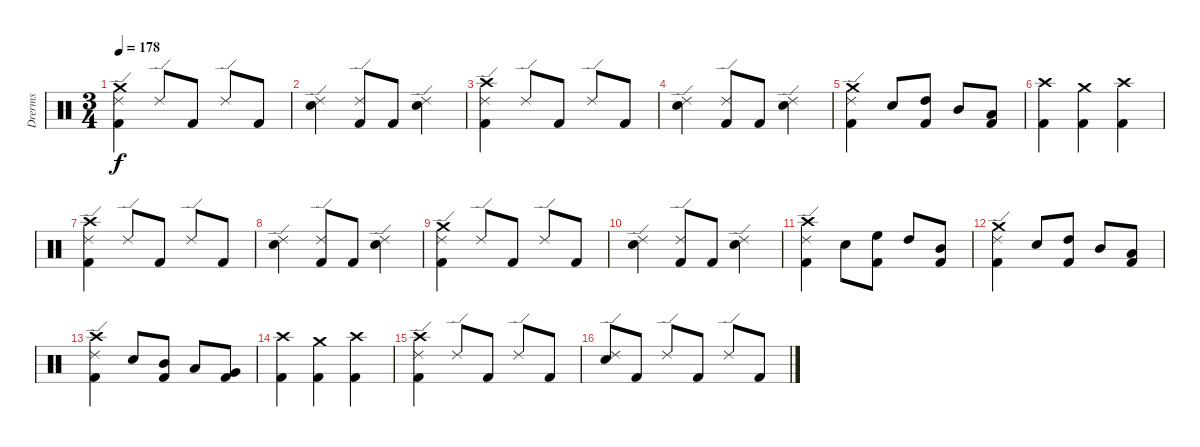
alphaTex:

\track ("Drerms" "Drerms") {instrument percussion}
\staff {score}
\articulation defaults
\ts (3 4)
\tempo 178
\clef neutral
\ks c
("Crash medium (hit)" "Ride (edge) 2" "Kick (hit) 2").4{dy f} "Ride (edge) 2".8 "Kick (hit) 2".8 "Ride (edge) 2".8 "Kick (hit) 2".8 |
("Snare (hit) 2" "Ride (edge) 2").4 ("Ride (edge) 2" "Kick (hit) 2").8 "Kick (hit) 2".8 ("Snare (hit) 2" "Ride (edge) 2").4 |
("Crash high (hit)" "Ride (edge) 2" "Kick (hit) 2").4 "Ride (edge) 2".8 "Kick (hit) 2".8 "Ride (edge) 2".8 "Kick (hit) 2".8 |
("Snare (hit) 2" "Ride (edge) 2").4 ("Ride (edge) 2" "Kick (hit) 2").8 "Kick (hit) 2".8 ("Snare (hit) 2" "Ride (edge) 2").4 |
("Crash medium (hit)" "Ride (edge) 2" "Kick (hit) 2").4 "Snare (hit) 2".8 ("High Tom (hit)" "Kick (hit) 2").8 "Mid Tom (hit)".8 ("Low Tom (hit)" "Kick (hit) 2").8 |
("Crash high (hit)" "Kick (hit) 2").4 ("Crash medium (hit)" "Kick (hit) 2").4 ("Crash high (hit)" "Kick (hit) 2").4 |
("Crash high (hit)" "Ride (edge) 2" "Kick (hit) 2").4 "Ride (edge) 2".8 "Kick (hit) 2".8 "Ride (edge) 2".8 "Kick (hit) 2".8 |
("Snare (hit) 2" "Ride (edge) 2").4 ("Ride (edge) 2" "Kick (hit) 2").8 "Kick (hit) 2".8 ("Snare (hit) 2" "Ride (edge) 2").4 |
("Crash medium (hit)" "Ride (edge) 2" "Kick (hit) 2").4 "Ride (edge) 2".8 "Kick (hit) 2".8 "Ride (edge) 2".8 "Kick (hit) 2".8 |
("Snare (hit) 2" "Ride (edge) 2").4 ("Ride (edge) 2" "Kick (hit) 2").8 "Kick (hit) 2".8 ("Snare (hit) 2" "Ride (edge) 2").4 |
("Crash high (hit)" "Ride (edge) 2" "Kick (hit) 2").4 "Snare (hit) 2".8 ("High Floor Tom (hit)" "Kick (hit) 2").8 "High Tom (hit)".8 ("Mid Tom (hit)" "Kick (hit) 2").8 |
("Crash medium (hit)" "Ride (edge) 2" "Kick (hit) 2").4 "Snare (hit) 2".8 ("High Tom (hit)" "Kick (hit) 2").8 "Mid Tom (hit)".8 ("Low Tom (hit)" "Kick (hit) 2").8 |
("Crash high (hit)" "Ride (edge) 2" "Kick (hit) 2").4 "Snare (hit) 2".8 ("Mid Tom (hit)" "Kick (hit) 2").8 "Low Tom (hit)".8 ("Very Low Tom (hit)" "Kick (hit) 2").8 |
("Crash high (hit)" "Kick (hit) 2").4 ("Crash medium (hit)" "Kick (hit) 2").4 ("Crash high (hit)" "Kick (hit) 2").4 |
("Crash high (hit)" "Ride (edge) 2" "Kick (hit) 2").4 "Ride (edge) 2".8 "Kick (hit) 2".8 "Ride (edge) 2".8 "Kick (hit) 2".8 |
("Snare (hit) 2" "Ride (edge) 2").8 "Kick (hit) 2".8 "Ride (edge) 2".8 "Kick (hit) 2".8 "Ride (edge) 2".8 "Kick (hit) 2".8
